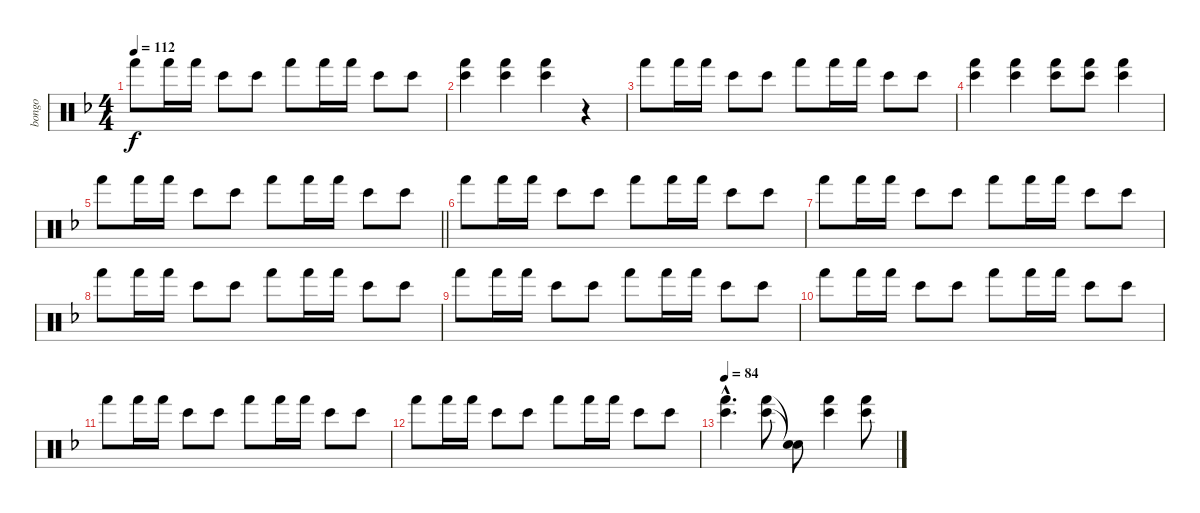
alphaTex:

\track ("bongo" "bongo") {instrument percussion}
\staff {score}
\articulation defaults
\ts (4 4)
\tempo 112
\clef neutral
\ks f "Hand (hit)".8{dy f} "Hand (hit)".16 "Hand (hit)".16 "Bongo High (hit)".8 "Bongo High (hit)".8 "Hand (hit)".8 "Hand (hit)".16 "Hand (hit)".16 "Bongo High (hit)".8 "Bongo High (hit)".8
|
("Hand (hit)" "Bongo High (hit)").4 ("Hand (hit)" "Bongo High (hit)").4 ("Hand (hit)" "Bongo High (hit)").4 r.4 |
"Hand (hit)".8 "Hand (hit)".16 "Hand (hit)".16 "Bongo High (hit)".8 "Bongo High (hit)".8 "Hand (hit)".8 "Hand (hit)".16 "Hand (hit)".16 "Bongo High (hit)".8 "Bongo High (hit)".8 |
("Hand (hit)" "Bongo High (hit)").4 ("Hand (hit)" "Bongo High (hit)").4 ("Hand (hit)" "Bongo High (hit)").8 ("Hand (hit)" "Bongo High (hit)").8 ("Hand (hit)" "Bongo High (hit)").4 |
\barLineRight lightlight "Hand (hit)".8 "Hand (hit)".16 "Hand (hit)".16 "Bongo High (hit)".8 "Bongo High (hit)".8 "Hand (hit)".8 "Hand (hit)".16 "Hand (hit)".16 "Bongo High (hit)".8 "Bongo High (hit)".8
|
"Hand (hit)".8 "Hand (hit)".16 "Hand (hit)".16 "Bongo High (hit)".8 "Bongo High (hit)".8 "Hand (hit)".8 "Hand (hit)".16 "Hand (hit)".16 "Bongo High (hit)".8 "Bongo High (hit)".8 |
"Hand (hit)".8 "Hand (hit)".16 "Hand (hit)".16 "Bongo High (hit)".8 "Bongo High (hit)".8 "Hand (hit)".8 "Hand (hit)".16 "Hand (hit)".16 "Bongo High (hit)".8 "Bongo High (hit)".8 |
"Hand (hit)".8 "Hand (hit)".16 "Hand (hit)".16 "Bongo High (hit)".8 "Bongo High (hit)".8 "Hand (hit)".8 "Hand (hit)".16 "Hand (hit)".16 "Bongo High (hit)".8 "Bongo High (hit)".8 |
"Hand (hit)".8 "Hand (hit)".16 "Hand (hit)".16 "Bongo High (hit)".8 "Bongo High (hit)".8 "Hand (hit)".8 "Hand (hit)".16 "Hand (hit)".16 "Bongo High (hit)".8 "Bongo High (hit)".8 |
"Hand (hit)".8 "Hand (hit)".16 "Hand (hit)".16 "Bongo High (hit)".8 "Bongo High (hit)".8 "Hand (hit)".8 "Hand (hit)".16 "Hand (hit)".16 "Bongo High (hit)".8 "Bongo High (hit)".8 |
"Hand (hit)".8 "Hand (hit)".16 "Hand (hit)".16 "Bongo High (hit)".8 "Bongo High (hit)".8 "Hand (hit)".8 "Hand (hit)".16 "Hand (hit)".16 "Bongo High (hit)".8 "Bongo High (hit)".8 |
"Hand (hit)".8 "Hand (hit)".16 "Hand (hit)".16 "Bongo High (hit)".8 "Bongo High (hit)".8 "Hand (hit)".8 "Hand (hit)".16 "Hand (hit)".16 "Bongo High (hit)".8 "Bongo High (hit)".8 |
\tempo 84
("Hand (hit)"{hac} "Bongo High (hit)"{hac}).4{d} ("Hand (hit)" "Bongo High (hit)").8 ("Snare (hit)"{t} "Snare (hit)"{t}).8 ("Hand (hit)" "Bongo High (hit)").4 ("Hand (hit)" "Bongo High (hit)").8
